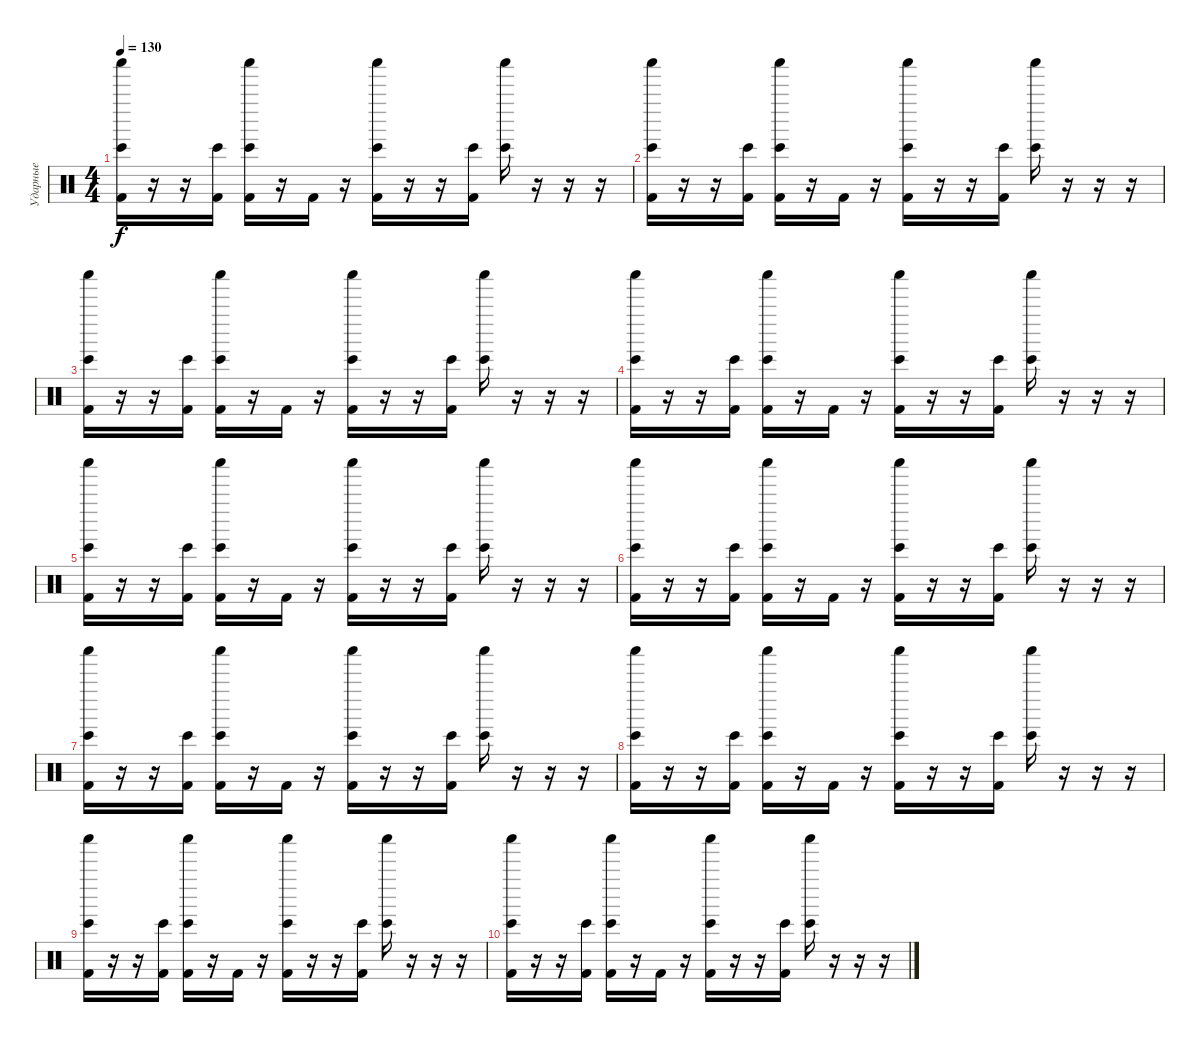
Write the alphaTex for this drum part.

\track ("Ударные" "Ударные") {instrument percussion}
\staff {score}
\articulation defaults
\ts (4 4)
\tempo 130
\clef neutral
\ks c
("Bongo High (hit)" "Shaker (hit)" "Kick (hit) 2").16{dy f} r.16 r.16 ("Bongo High (hit)" "Kick (hit) 2").16 ("Bongo High (hit)" "Shaker (hit)" "Kick (hit) 2").16 r.16 "Kick (hit) 2".16 r.16 ("Bongo High (hit)" "Shaker (hit)" "Kick (hit) 2").16 r.16 r.16 ("Bongo High (hit)" "Kick (hit) 2").16 ("Bongo High (hit)" "Shaker (hit)").16 r.16 r.16 r.16 |
("Bongo High (hit)" "Shaker (hit)" "Kick (hit) 2").16 r.16 r.16 ("Bongo High (hit)" "Kick (hit) 2").16 ("Bongo High (hit)" "Shaker (hit)" "Kick (hit) 2").16 r.16 "Kick (hit) 2".16 r.16 ("Bongo High (hit)" "Shaker (hit)" "Kick (hit) 2").16 r.16 r.16 ("Bongo High (hit)" "Kick (hit) 2").16 ("Bongo High (hit)" "Shaker (hit)").16 r.16 r.16 r.16 |
("Bongo High (hit)" "Shaker (hit)" "Kick (hit) 2").16 r.16 r.16 ("Bongo High (hit)" "Kick (hit) 2").16 ("Bongo High (hit)" "Shaker (hit)" "Kick (hit) 2").16 r.16 "Kick (hit) 2".16 r.16 ("Bongo High (hit)" "Shaker (hit)" "Kick (hit) 2").16 r.16 r.16 ("Bongo High (hit)" "Kick (hit) 2").16 ("Bongo High (hit)" "Shaker (hit)").16 r.16 r.16 r.16 |
("Bongo High (hit)" "Shaker (hit)" "Kick (hit) 2").16 r.16 r.16 ("Bongo High (hit)" "Kick (hit) 2").16 ("Bongo High (hit)" "Shaker (hit)" "Kick (hit) 2").16 r.16 "Kick (hit) 2".16 r.16 ("Bongo High (hit)" "Shaker (hit)" "Kick (hit) 2").16 r.16 r.16 ("Bongo High (hit)" "Kick (hit) 2").16 ("Bongo High (hit)" "Shaker (hit)").16 r.16 r.16 r.16 |
("Bongo High (hit)" "Shaker (hit)" "Kick (hit) 2").16 r.16 r.16 ("Bongo High (hit)" "Kick (hit) 2").16 ("Bongo High (hit)" "Shaker (hit)" "Kick (hit) 2").16 r.16 "Kick (hit) 2".16 r.16 ("Bongo High (hit)" "Shaker (hit)" "Kick (hit) 2").16 r.16 r.16 ("Bongo High (hit)" "Kick (hit) 2").16 ("Bongo High (hit)" "Shaker (hit)").16 r.16 r.16 r.16 |
("Bongo High (hit)" "Shaker (hit)" "Kick (hit) 2").16 r.16 r.16 ("Bongo High (hit)" "Kick (hit) 2").16 ("Bongo High (hit)" "Shaker (hit)" "Kick (hit) 2").16 r.16 "Kick (hit) 2".16 r.16 ("Bongo High (hit)" "Shaker (hit)" "Kick (hit) 2").16 r.16 r.16 ("Bongo High (hit)" "Kick (hit) 2").16 ("Bongo High (hit)" "Shaker (hit)").16 r.16 r.16 r.16 |
("Bongo High (hit)" "Shaker (hit)" "Kick (hit) 2").16 r.16 r.16 ("Bongo High (hit)" "Kick (hit) 2").16 ("Bongo High (hit)" "Shaker (hit)" "Kick (hit) 2").16 r.16 "Kick (hit) 2".16 r.16 ("Bongo High (hit)" "Shaker (hit)" "Kick (hit) 2").16 r.16 r.16 ("Bongo High (hit)" "Kick (hit) 2").16 ("Bongo High (hit)" "Shaker (hit)").16 r.16 r.16 r.16 |
("Bongo High (hit)" "Shaker (hit)" "Kick (hit) 2").16 r.16 r.16 ("Bongo High (hit)" "Kick (hit) 2").16 ("Bongo High (hit)" "Shaker (hit)" "Kick (hit) 2").16 r.16 "Kick (hit) 2".16 r.16 ("Bongo High (hit)" "Shaker (hit)" "Kick (hit) 2").16 r.16 r.16 ("Bongo High (hit)" "Kick (hit) 2").16 ("Bongo High (hit)" "Shaker (hit)").16 r.16 r.16 r.16 |
("Bongo High (hit)" "Shaker (hit)" "Kick (hit) 2").16 r.16 r.16 ("Bongo High (hit)" "Kick (hit) 2").16 ("Bongo High (hit)" "Shaker (hit)" "Kick (hit) 2").16 r.16 "Kick (hit) 2".16 r.16 ("Bongo High (hit)" "Shaker (hit)" "Kick (hit) 2").16 r.16 r.16 ("Bongo High (hit)" "Kick (hit) 2").16 ("Bongo High (hit)" "Shaker (hit)").16 r.16 r.16 r.16 |
("Bongo High (hit)" "Shaker (hit)" "Kick (hit) 2").16 r.16 r.16 ("Bongo High (hit)" "Kick (hit) 2").16 ("Bongo High (hit)" "Shaker (hit)" "Kick (hit) 2").16 r.16 "Kick (hit) 2".16 r.16 ("Bongo High (hit)" "Shaker (hit)" "Kick (hit) 2").16 r.16 r.16 ("Bongo High (hit)" "Kick (hit) 2").16 ("Bongo High (hit)" "Shaker (hit)").16 r.16 r.16 r.16
